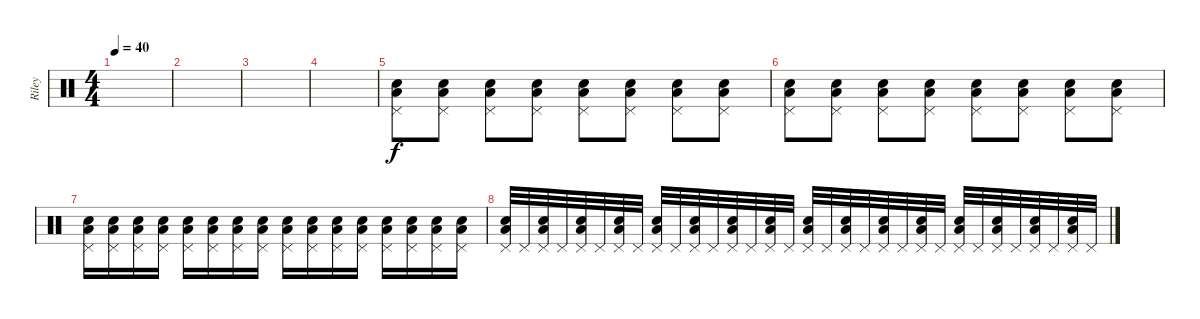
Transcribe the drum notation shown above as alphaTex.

\track ("Riley" "Riley") {instrument percussion}
\staff {score}
\articulation defaults
\ts (4 4)
\tempo 40
\clef neutral
\ks c
|
|
|
|
("Low Tom (hit)" "Pedal Hi-Hat (hit)" "Snare (hit) 2").8 ("Low Tom (hit)" "Pedal Hi-Hat (hit)" "Snare (hit) 2").8 ("Low Tom (hit)" "Pedal Hi-Hat (hit)" "Snare (hit) 2").8 ("Low Tom (hit)" "Pedal Hi-Hat (hit)" "Snare (hit) 2").8 ("Low Tom (hit)" "Pedal Hi-Hat (hit)" "Snare (hit) 2").8 ("Low Tom (hit)" "Pedal Hi-Hat (hit)" "Snare (hit) 2").8 ("Low Tom (hit)" "Pedal Hi-Hat (hit)" "Snare (hit) 2").8 ("Low Tom (hit)" "Pedal Hi-Hat (hit)" "Snare (hit) 2").8 |
("Low Tom (hit)" "Pedal Hi-Hat (hit)" "Snare (hit) 2").8 ("Low Tom (hit)" "Pedal Hi-Hat (hit)" "Snare (hit) 2").8 ("Low Tom (hit)" "Pedal Hi-Hat (hit)" "Snare (hit) 2").8 ("Low Tom (hit)" "Pedal Hi-Hat (hit)" "Snare (hit) 2").8 ("Low Tom (hit)" "Pedal Hi-Hat (hit)" "Snare (hit) 2").8 ("Low Tom (hit)" "Pedal Hi-Hat (hit)" "Snare (hit) 2").8 ("Low Tom (hit)" "Pedal Hi-Hat (hit)" "Snare (hit) 2").8 ("Low Tom (hit)" "Pedal Hi-Hat (hit)" "Snare (hit) 2").8 |
("Low Tom (hit)" "Pedal Hi-Hat (hit)" "Snare (hit) 2").16 ("Low Tom (hit)" "Pedal Hi-Hat (hit)" "Snare (hit) 2").16 ("Low Tom (hit)" "Pedal Hi-Hat (hit)" "Snare (hit) 2").16 ("Low Tom (hit)" "Pedal Hi-Hat (hit)" "Snare (hit) 2").16 ("Low Tom (hit)" "Pedal Hi-Hat (hit)" "Snare (hit) 2").16 ("Low Tom (hit)" "Pedal Hi-Hat (hit)" "Snare (hit) 2").16 ("Low Tom (hit)" "Pedal Hi-Hat (hit)" "Snare (hit) 2").16 ("Low Tom (hit)" "Pedal Hi-Hat (hit)" "Snare (hit) 2").16 ("Low Tom (hit)" "Pedal Hi-Hat (hit)" "Snare (hit) 2").16 ("Low Tom (hit)" "Pedal Hi-Hat (hit)" "Snare (hit) 2").16 ("Low Tom (hit)" "Pedal Hi-Hat (hit)" "Snare (hit) 2").16 ("Low Tom (hit)" "Pedal Hi-Hat (hit)" "Snare (hit) 2").16 ("Low Tom (hit)" "Pedal Hi-Hat (hit)" "Snare (hit) 2").16 ("Low Tom (hit)" "Pedal Hi-Hat (hit)" "Snare (hit) 2").16 ("Low Tom (hit)" "Pedal Hi-Hat (hit)" "Snare (hit) 2").16 ("Low Tom (hit)" "Pedal Hi-Hat (hit)" "Snare (hit) 2").16 |
("Low Tom (hit)" "Pedal Hi-Hat (hit)" "Snare (hit) 2").32 "Pedal Hi-Hat (hit)".32 ("Low Tom (hit)" "Pedal Hi-Hat (hit)" "Snare (hit) 2").32 "Pedal Hi-Hat (hit)".32 ("Low Tom (hit)" "Pedal Hi-Hat (hit)" "Snare (hit) 2").32 "Pedal Hi-Hat (hit)".32 ("Low Tom (hit)" "Pedal Hi-Hat (hit)" "Snare (hit) 2").32 "Pedal Hi-Hat (hit)".32 ("Low Tom (hit)" "Pedal Hi-Hat (hit)" "Snare (hit) 2").32 "Pedal Hi-Hat (hit)".32 ("Low Tom (hit)" "Pedal Hi-Hat (hit)" "Snare (hit) 2").32 "Pedal Hi-Hat (hit)".32 ("Low Tom (hit)" "Pedal Hi-Hat (hit)" "Snare (hit) 2").32 "Pedal Hi-Hat (hit)".32 ("Low Tom (hit)" "Pedal Hi-Hat (hit)" "Snare (hit) 2").32 "Pedal Hi-Hat (hit)".32 ("Low Tom (hit)" "Pedal Hi-Hat (hit)" "Snare (hit) 2").32 "Pedal Hi-Hat (hit)".32 ("Low Tom (hit)" "Pedal Hi-Hat (hit)" "Snare (hit) 2").32 "Pedal Hi-Hat (hit)".32 ("Low Tom (hit)" "Pedal Hi-Hat (hit)" "Snare (hit) 2").32 "Pedal Hi-Hat (hit)".32 ("Low Tom (hit)" "Pedal Hi-Hat (hit)" "Snare (hit) 2").32 "Pedal Hi-Hat (hit)".32 ("Low Tom (hit)" "Pedal Hi-Hat (hit)" "Snare (hit) 2").32 "Pedal Hi-Hat (hit)".32 ("Low Tom (hit)" "Pedal Hi-Hat (hit)" "Snare (hit) 2").32 "Pedal Hi-Hat (hit)".32 ("Low Tom (hit)" "Pedal Hi-Hat (hit)" "Snare (hit) 2").32 "Pedal Hi-Hat (hit)".32 ("Low Tom (hit)" "Pedal Hi-Hat (hit)" "Snare (hit) 2").32 "Pedal Hi-Hat (hit)".32
